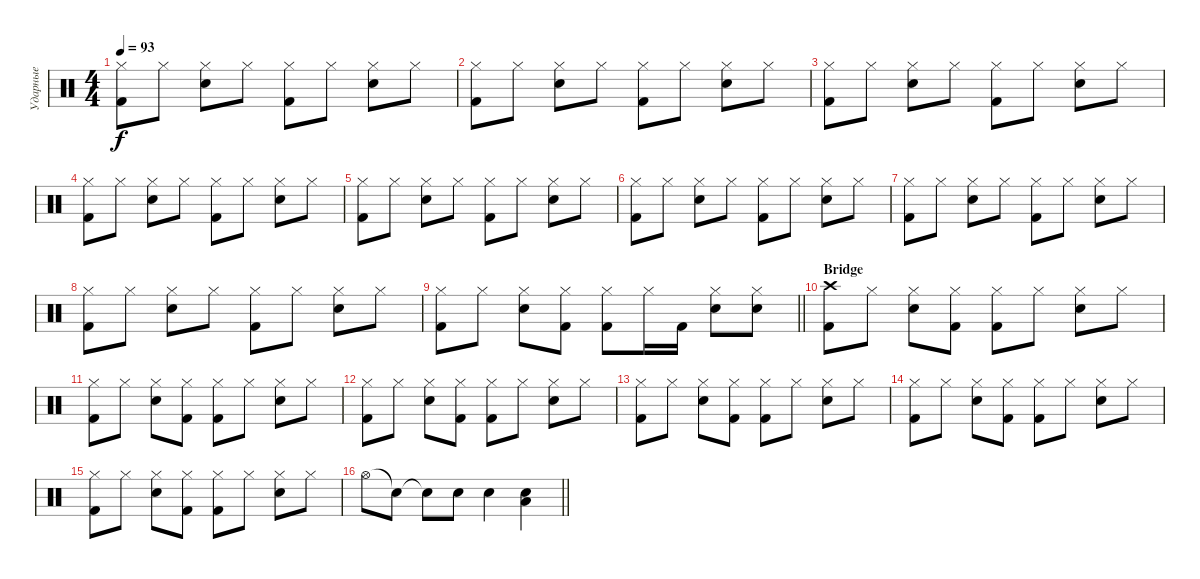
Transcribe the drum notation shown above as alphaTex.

\track ("Ударные" "Ударные") {instrument percussion}
\staff
\articulation defaults
\ts (4 4)
\tempo 93
\clef neutral
\ks c
("Hi-Hat (closed)" "Kick (hit) 2").8{dy f} "Hi-Hat (closed)".8 ("Hi-Hat (closed)" "Electric Snare (hit)").8 "Hi-Hat (closed)".8 ("Hi-Hat (closed)" "Kick (hit) 2").8 "Hi-Hat (closed)".8 ("Hi-Hat (closed)" "Electric Snare (hit)").8 "Hi-Hat (closed)".8 |
("Hi-Hat (closed)" "Kick (hit) 2").8 "Hi-Hat (closed)".8 ("Hi-Hat (closed)" "Electric Snare (hit)").8 "Hi-Hat (closed)".8 ("Hi-Hat (closed)" "Kick (hit) 2").8 "Hi-Hat (closed)".8 ("Hi-Hat (closed)" "Electric Snare (hit)").8 "Hi-Hat (closed)".8 |
("Hi-Hat (closed)" "Kick (hit) 2").8 "Hi-Hat (closed)".8 ("Hi-Hat (closed)" "Electric Snare (hit)").8 "Hi-Hat (closed)".8 ("Hi-Hat (closed)" "Kick (hit) 2").8 "Hi-Hat (closed)".8 ("Hi-Hat (closed)" "Electric Snare (hit)").8 "Hi-Hat (closed)".8 |
("Hi-Hat (closed)" "Kick (hit) 2").8 "Hi-Hat (closed)".8 ("Hi-Hat (closed)" "Electric Snare (hit)").8 "Hi-Hat (closed)".8 ("Hi-Hat (closed)" "Kick (hit) 2").8 "Hi-Hat (closed)".8 ("Hi-Hat (closed)" "Electric Snare (hit)").8 "Hi-Hat (closed)".8 |
("Hi-Hat (closed)" "Kick (hit) 2").8 "Hi-Hat (closed)".8 ("Hi-Hat (closed)" "Electric Snare (hit)").8 "Hi-Hat (closed)".8 ("Hi-Hat (closed)" "Kick (hit) 2").8 "Hi-Hat (closed)".8 ("Hi-Hat (closed)" "Electric Snare (hit)").8 "Hi-Hat (closed)".8 |
("Hi-Hat (closed)" "Kick (hit) 2").8 "Hi-Hat (closed)".8 ("Hi-Hat (closed)" "Electric Snare (hit)").8 "Hi-Hat (closed)".8 ("Hi-Hat (closed)" "Kick (hit) 2").8 "Hi-Hat (closed)".8 ("Hi-Hat (closed)" "Electric Snare (hit)").8 "Hi-Hat (closed)".8 |
("Hi-Hat (closed)" "Kick (hit) 2").8 "Hi-Hat (closed)".8 ("Hi-Hat (closed)" "Electric Snare (hit)").8 "Hi-Hat (closed)".8 ("Hi-Hat (closed)" "Kick (hit) 2").8 "Hi-Hat (closed)".8 ("Hi-Hat (closed)" "Electric Snare (hit)").8 "Hi-Hat (closed)".8 |
("Hi-Hat (closed)" "Kick (hit) 2").8 "Hi-Hat (closed)".8 ("Hi-Hat (closed)" "Electric Snare (hit)").8 "Hi-Hat (closed)".8 ("Hi-Hat (closed)" "Kick (hit) 2").8 "Hi-Hat (closed)".8 ("Hi-Hat (closed)" "Electric Snare (hit)").8 "Hi-Hat (closed)".8 |
\barLineRight lightlight
("Hi-Hat (closed)" "Kick (hit) 2").8 "Hi-Hat (closed)".8 ("Hi-Hat (closed)" "Electric Snare (hit)").8 ("Hi-Hat (closed)" "Kick (hit) 2").8 ("Hi-Hat (closed)" "Kick (hit) 2").8 "Hi-Hat (closed)".16 "Kick (hit) 2".16 ("Hi-Hat (closed)" "Electric Snare (hit)").8 ("Hi-Hat (closed)" "Electric Snare (hit)").8 |
\section ("" "Bridge")
("Crash high (hit)" "Kick (hit) 2").8 "Hi-Hat (closed)".8 ("Hi-Hat (closed)" "Electric Snare (hit)").8 ("Hi-Hat (closed)" "Kick (hit) 2").8 ("Hi-Hat (closed)" "Kick (hit) 2").8 "Hi-Hat (closed)".8 ("Hi-Hat (closed)" "Electric Snare (hit)").8 "Hi-Hat (closed)".8 |
("Hi-Hat (closed)" "Kick (hit) 2").8 "Hi-Hat (closed)".8 ("Hi-Hat (closed)" "Electric Snare (hit)").8 ("Hi-Hat (closed)" "Kick (hit) 2").8 ("Hi-Hat (closed)" "Kick (hit) 2").8 "Hi-Hat (closed)".8 ("Hi-Hat (closed)" "Electric Snare (hit)").8 "Hi-Hat (closed)".8 |
("Hi-Hat (closed)" "Kick (hit) 2").8 "Hi-Hat (closed)".8 ("Hi-Hat (closed)" "Electric Snare (hit)").8 ("Hi-Hat (closed)" "Kick (hit) 2").8 ("Hi-Hat (closed)" "Kick (hit) 2").8 "Hi-Hat (closed)".8 ("Hi-Hat (closed)" "Electric Snare (hit)").8 "Hi-Hat (closed)".8 |
("Hi-Hat (closed)" "Kick (hit) 2").8 "Hi-Hat (closed)".8 ("Hi-Hat (closed)" "Electric Snare (hit)").8 ("Hi-Hat (closed)" "Kick (hit) 2").8 ("Hi-Hat (closed)" "Kick (hit) 2").8 "Hi-Hat (closed)".8 ("Hi-Hat (closed)" "Electric Snare (hit)").8 "Hi-Hat (closed)".8 |
("Hi-Hat (closed)" "Kick (hit) 2").8 "Hi-Hat (closed)".8 ("Hi-Hat (closed)" "Electric Snare (hit)").8 ("Hi-Hat (closed)" "Kick (hit) 2").8 ("Hi-Hat (closed)" "Kick (hit) 2").8 "Hi-Hat (closed)".8 ("Hi-Hat (closed)" "Electric Snare (hit)").8 "Hi-Hat (closed)".8 |
("Hi-Hat (closed)" "Kick (hit) 2").8 "Hi-Hat (closed)".8 ("Hi-Hat (closed)" "Electric Snare (hit)").8 ("Hi-Hat (closed)" "Kick (hit) 2").8 ("Hi-Hat (closed)" "Kick (hit) 2").8 "Hi-Hat (closed)".8 ("Hi-Hat (closed)" "Electric Snare (hit)").8 "Hi-Hat (closed)".8 |
\barLineRight lightlight "Hi-Hat (open)".8 "Snare (hit)"{t}.8 "Snare (hit)"{t}.8 "Electric Snare (hit)".8 "Electric Snare (hit)".4
("Electric Snare (hit)" "Low Tom (hit)").4
